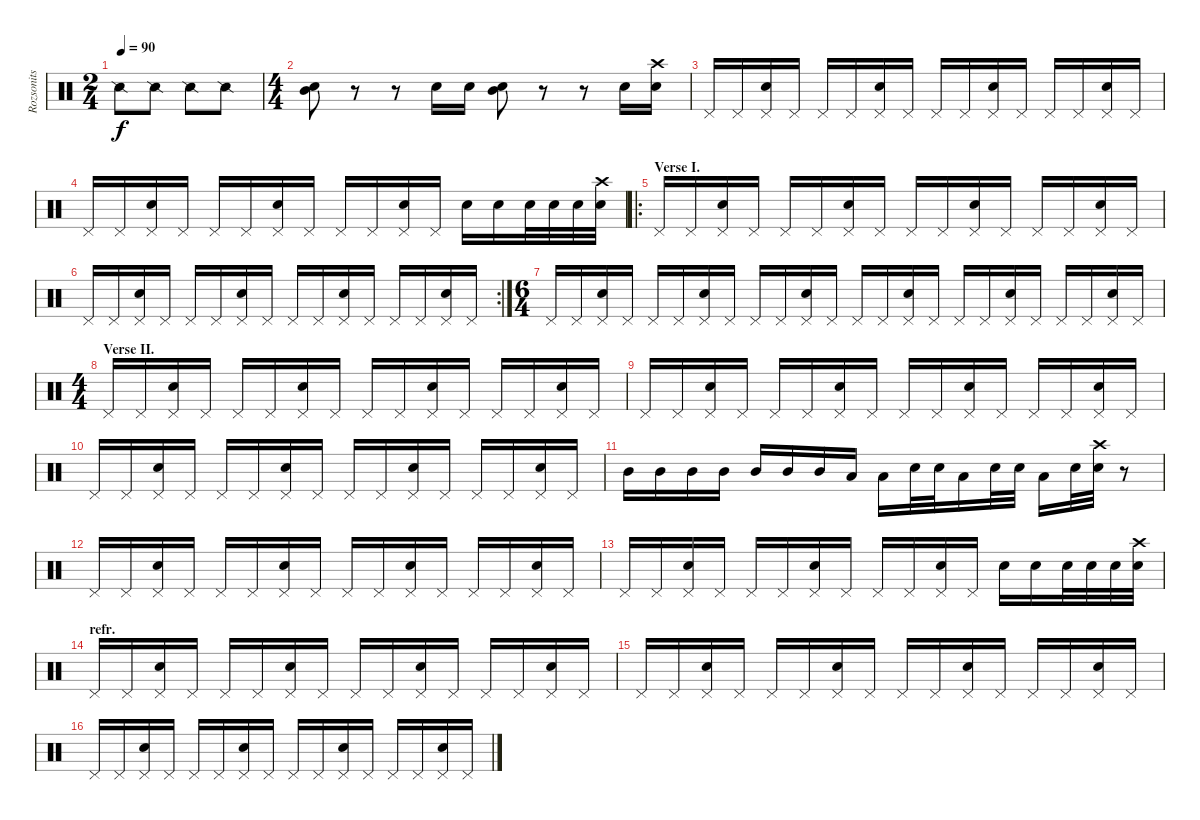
\track ("Rozsonits T. dobok" "Rozsonits ") {instrument percussion}
\staff {score}
\articulation defaults
\ts (2 4)
\tempo 90
\clef neutral
\ks c "Snare (side stick) 2".8{dy f} "Snare (side stick) 2".8 "Snare (side stick) 2".8 "Snare (side stick) 2".8
|
\ts (4 4)
("Snare (hit) 2" "Mid Tom (hit)").8 r.8 r.8 "Snare (hit) 2".16 "Snare (hit) 2".16 ("Snare (hit) 2" "Mid Tom (hit)").8 r.8 r.8 "Snare (hit) 2".16 ("Snare (hit) 2" "Crash high (hit)").16 |
"Pedal Hi-Hat (hit)".16 "Pedal Hi-Hat (hit)".16 ("Pedal Hi-Hat (hit)" "Snare (hit) 2").16 "Pedal Hi-Hat (hit)".16 "Pedal Hi-Hat (hit)".16 "Pedal Hi-Hat (hit)".16 ("Pedal Hi-Hat (hit)" "Snare (hit) 2").16 "Pedal Hi-Hat (hit)".16 "Pedal Hi-Hat (hit)".16 "Pedal Hi-Hat (hit)".16 ("Pedal Hi-Hat (hit)" "Snare (hit) 2").16 "Pedal Hi-Hat (hit)".16 "Pedal Hi-Hat (hit)".16 "Pedal Hi-Hat (hit)".16 ("Pedal Hi-Hat (hit)" "Snare (hit) 2").16 "Pedal Hi-Hat (hit)".16 |
"Pedal Hi-Hat (hit)".16 "Pedal Hi-Hat (hit)".16 ("Pedal Hi-Hat (hit)" "Snare (hit) 2").16 "Pedal Hi-Hat (hit)".16 "Pedal Hi-Hat (hit)".16 "Pedal Hi-Hat (hit)".16 ("Pedal Hi-Hat (hit)" "Snare (hit) 2").16 "Pedal Hi-Hat (hit)".16 "Pedal Hi-Hat (hit)".16 "Pedal Hi-Hat (hit)".16 ("Pedal Hi-Hat (hit)" "Snare (hit) 2").16 "Pedal Hi-Hat (hit)".16 "Snare (hit) 2".16 "Snare (hit) 2".16 "Snare (hit) 2".32 "Snare (hit) 2".32 "Snare (hit) 2".32 ("Crash high (hit)" "Snare (hit) 2").32 |
\ro
\section ("" "Verse I.")
"Pedal Hi-Hat (hit)".16 "Pedal Hi-Hat (hit)".16 ("Pedal Hi-Hat (hit)" "Snare (hit) 2").16 "Pedal Hi-Hat (hit)".16 "Pedal Hi-Hat (hit)".16 "Pedal Hi-Hat (hit)".16 ("Pedal Hi-Hat (hit)" "Snare (hit) 2").16 "Pedal Hi-Hat (hit)".16 "Pedal Hi-Hat (hit)".16 "Pedal Hi-Hat (hit)".16 ("Pedal Hi-Hat (hit)" "Snare (hit) 2").16 "Pedal Hi-Hat (hit)".16 "Pedal Hi-Hat (hit)".16 "Pedal Hi-Hat (hit)".16 ("Pedal Hi-Hat (hit)" "Snare (hit) 2").16 "Pedal Hi-Hat (hit)".16 |
\rc 2 "Pedal Hi-Hat (hit)".16 "Pedal Hi-Hat (hit)".16
("Pedal Hi-Hat (hit)" "Snare (hit) 2").16 "Pedal Hi-Hat (hit)".16 "Pedal Hi-Hat (hit)".16 "Pedal Hi-Hat (hit)".16 ("Pedal Hi-Hat (hit)" "Snare (hit) 2").16 "Pedal Hi-Hat (hit)".16 "Pedal Hi-Hat (hit)".16 "Pedal Hi-Hat (hit)".16 ("Pedal Hi-Hat (hit)" "Snare (hit) 2").16 "Pedal Hi-Hat (hit)".16 "Pedal Hi-Hat (hit)".16 "Pedal Hi-Hat (hit)".16 ("Pedal Hi-Hat (hit)" "Snare (hit) 2").16 "Pedal Hi-Hat (hit)".16 |
\ts (6 4)
"Pedal Hi-Hat (hit)".16 "Pedal Hi-Hat (hit)".16 ("Pedal Hi-Hat (hit)" "Snare (hit) 2").16 "Pedal Hi-Hat (hit)".16 "Pedal Hi-Hat (hit)".16 "Pedal Hi-Hat (hit)".16 ("Pedal Hi-Hat (hit)" "Snare (hit) 2").16 "Pedal Hi-Hat (hit)".16 "Pedal Hi-Hat (hit)".16 "Pedal Hi-Hat (hit)".16 ("Pedal Hi-Hat (hit)" "Snare (hit) 2").16 "Pedal Hi-Hat (hit)".16 "Pedal Hi-Hat (hit)".16 "Pedal Hi-Hat (hit)".16 ("Pedal Hi-Hat (hit)" "Snare (hit) 2").16 "Pedal Hi-Hat (hit)".16 "Pedal Hi-Hat (hit)".16 "Pedal Hi-Hat (hit)".16 ("Pedal Hi-Hat (hit)" "Snare (hit) 2").16 "Pedal Hi-Hat (hit)".16 "Pedal Hi-Hat (hit)".16 "Pedal Hi-Hat (hit)".16 ("Pedal Hi-Hat (hit)" "Snare (hit) 2").16 "Pedal Hi-Hat (hit)".16 |
\ts (4 4)
\section ("" "Verse II.")
"Pedal Hi-Hat (hit)".16 "Pedal Hi-Hat (hit)".16 ("Pedal Hi-Hat (hit)" "Snare (hit) 2").16 "Pedal Hi-Hat (hit)".16 "Pedal Hi-Hat (hit)".16 "Pedal Hi-Hat (hit)".16 ("Pedal Hi-Hat (hit)" "Snare (hit) 2").16 "Pedal Hi-Hat (hit)".16 "Pedal Hi-Hat (hit)".16 "Pedal Hi-Hat (hit)".16 ("Pedal Hi-Hat (hit)" "Snare (hit) 2").16 "Pedal Hi-Hat (hit)".16 "Pedal Hi-Hat (hit)".16 "Pedal Hi-Hat (hit)".16 ("Pedal Hi-Hat (hit)" "Snare (hit) 2").16 "Pedal Hi-Hat (hit)".16 |
"Pedal Hi-Hat (hit)".16 "Pedal Hi-Hat (hit)".16 ("Pedal Hi-Hat (hit)" "Snare (hit) 2").16 "Pedal Hi-Hat (hit)".16 "Pedal Hi-Hat (hit)".16 "Pedal Hi-Hat (hit)".16 ("Pedal Hi-Hat (hit)" "Snare (hit) 2").16 "Pedal Hi-Hat (hit)".16 "Pedal Hi-Hat (hit)".16 "Pedal Hi-Hat (hit)".16 ("Pedal Hi-Hat (hit)" "Snare (hit) 2").16 "Pedal Hi-Hat (hit)".16 "Pedal Hi-Hat (hit)".16 "Pedal Hi-Hat (hit)".16 ("Pedal Hi-Hat (hit)" "Snare (hit) 2").16 "Pedal Hi-Hat (hit)".16 |
"Pedal Hi-Hat (hit)".16 "Pedal Hi-Hat (hit)".16 ("Pedal Hi-Hat (hit)" "Snare (hit) 2").16 "Pedal Hi-Hat (hit)".16 "Pedal Hi-Hat (hit)".16 "Pedal Hi-Hat (hit)".16 ("Pedal Hi-Hat (hit)" "Snare (hit) 2").16 "Pedal Hi-Hat (hit)".16 "Pedal Hi-Hat (hit)".16 "Pedal Hi-Hat (hit)".16 ("Pedal Hi-Hat (hit)" "Snare (hit) 2").16 "Pedal Hi-Hat (hit)".16 "Pedal Hi-Hat (hit)".16 "Pedal Hi-Hat (hit)".16 ("Pedal Hi-Hat (hit)" "Snare (hit) 2").16 "Pedal Hi-Hat (hit)".16 |
"Mid Tom (hit)".16 "Mid Tom (hit)".16 "Mid Tom (hit)".16 "Mid Tom (hit)".16 "Mid Tom (hit)".16 "Mid Tom (hit)".16 "Mid Tom (hit)".16 "Low Tom (hit)".16 "Low Tom (hit)".16 "Snare (hit) 2".32 "Snare (hit) 2".32 "Low Tom (hit)".16 "Snare (hit) 2".32 "Snare (hit) 2".32 "Low Tom (hit)".16 "Snare (hit) 2".32 ("Crash high (hit)" "Snare (hit) 2").32 r.8 |
"Pedal Hi-Hat (hit)".16 "Pedal Hi-Hat (hit)".16 ("Pedal Hi-Hat (hit)" "Snare (hit) 2").16 "Pedal Hi-Hat (hit)".16 "Pedal Hi-Hat (hit)".16 "Pedal Hi-Hat (hit)".16 ("Pedal Hi-Hat (hit)" "Snare (hit) 2").16 "Pedal Hi-Hat (hit)".16 "Pedal Hi-Hat (hit)".16 "Pedal Hi-Hat (hit)".16 ("Pedal Hi-Hat (hit)" "Snare (hit) 2").16 "Pedal Hi-Hat (hit)".16 "Pedal Hi-Hat (hit)".16 "Pedal Hi-Hat (hit)".16 ("Pedal Hi-Hat (hit)" "Snare (hit) 2").16 "Pedal Hi-Hat (hit)".16 |
"Pedal Hi-Hat (hit)".16 "Pedal Hi-Hat (hit)".16 ("Pedal Hi-Hat (hit)" "Snare (hit) 2").16 "Pedal Hi-Hat (hit)".16 "Pedal Hi-Hat (hit)".16 "Pedal Hi-Hat (hit)".16 ("Pedal Hi-Hat (hit)" "Snare (hit) 2").16 "Pedal Hi-Hat (hit)".16 "Pedal Hi-Hat (hit)".16 "Pedal Hi-Hat (hit)".16 ("Pedal Hi-Hat (hit)" "Snare (hit) 2").16 "Pedal Hi-Hat (hit)".16 "Snare (hit) 2".16 "Snare (hit) 2".16 "Snare (hit) 2".32 "Snare (hit) 2".32 "Snare (hit) 2".32 ("Crash high (hit)" "Snare (hit) 2").32 |
\section ("" "refr.")
"Pedal Hi-Hat (hit)".16 "Pedal Hi-Hat (hit)".16 ("Pedal Hi-Hat (hit)" "Snare (hit) 2").16 "Pedal Hi-Hat (hit)".16 "Pedal Hi-Hat (hit)".16 "Pedal Hi-Hat (hit)".16 ("Pedal Hi-Hat (hit)" "Snare (hit) 2").16 "Pedal Hi-Hat (hit)".16 "Pedal Hi-Hat (hit)".16 "Pedal Hi-Hat (hit)".16 ("Pedal Hi-Hat (hit)" "Snare (hit) 2").16 "Pedal Hi-Hat (hit)".16 "Pedal Hi-Hat (hit)".16 "Pedal Hi-Hat (hit)".16 ("Pedal Hi-Hat (hit)" "Snare (hit) 2").16 "Pedal Hi-Hat (hit)".16 |
"Pedal Hi-Hat (hit)".16 "Pedal Hi-Hat (hit)".16 ("Pedal Hi-Hat (hit)" "Snare (hit) 2").16 "Pedal Hi-Hat (hit)".16 "Pedal Hi-Hat (hit)".16 "Pedal Hi-Hat (hit)".16 ("Pedal Hi-Hat (hit)" "Snare (hit) 2").16 "Pedal Hi-Hat (hit)".16 "Pedal Hi-Hat (hit)".16 "Pedal Hi-Hat (hit)".16 ("Pedal Hi-Hat (hit)" "Snare (hit) 2").16 "Pedal Hi-Hat (hit)".16 "Pedal Hi-Hat (hit)".16 "Pedal Hi-Hat (hit)".16 ("Pedal Hi-Hat (hit)" "Snare (hit) 2").16 "Pedal Hi-Hat (hit)".16 |
"Pedal Hi-Hat (hit)".16 "Pedal Hi-Hat (hit)".16 ("Pedal Hi-Hat (hit)" "Snare (hit) 2").16 "Pedal Hi-Hat (hit)".16 "Pedal Hi-Hat (hit)".16 "Pedal Hi-Hat (hit)".16 ("Pedal Hi-Hat (hit)" "Snare (hit) 2").16 "Pedal Hi-Hat (hit)".16 "Pedal Hi-Hat (hit)".16 "Pedal Hi-Hat (hit)".16 ("Pedal Hi-Hat (hit)" "Snare (hit) 2").16 "Pedal Hi-Hat (hit)".16 "Pedal Hi-Hat (hit)".16 "Pedal Hi-Hat (hit)".16 ("Pedal Hi-Hat (hit)" "Snare (hit) 2").16 "Pedal Hi-Hat (hit)".16
